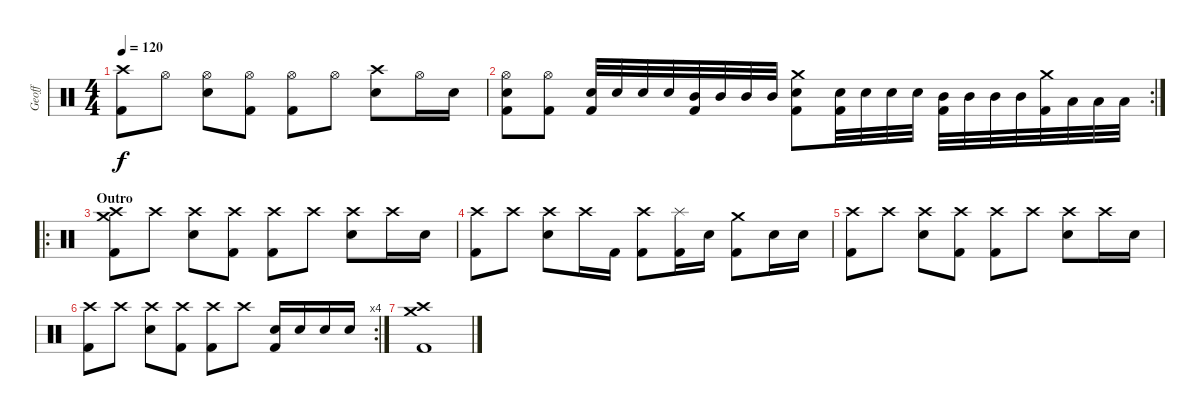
\track ("Geoff" "Geoff") {instrument percussion}
\staff {score}
\articulation defaults
\ts (4 4)
\tempo 120
\clef neutral
\ks c
("Crash high (hit)" "Kick (hit) 2").8{dy f} "Hi-Hat (open)".8 ("Hi-Hat (open)" "Electric Snare (hit)").8 ("Hi-Hat (open)" "Kick (hit) 2").8 ("Hi-Hat (open)" "Kick (hit) 2").8 "Hi-Hat (open)".8 ("Crash high (hit)" "Electric Snare (hit)").8 "Hi-Hat (open)".16 "Electric Snare (hit)".16 |
\rc 2
("Hi-Hat (open)" "Electric Snare (hit)" "Kick (hit) 2").8 ("Hi-Hat (open)" "Kick (hit) 2").8 ("Electric Snare (hit)" "Kick (hit) 2").32 "Electric Snare (hit)".32 "Electric Snare (hit)".32 "Electric Snare (hit)".32 ("Mid Tom (hit)" "Kick (hit) 2").32 "Mid Tom (hit)".32 "Mid Tom (hit)".32 "Mid Tom (hit)".32 ("Crash medium (hit)" "Electric Snare (hit)" "Kick (hit) 2").8 ("Electric Snare (hit)" "Kick (hit) 2").32 "Electric Snare (hit)".32 "Electric Snare (hit)".32 "Electric Snare (hit)".32 ("Mid Tom (hit)" "Kick (hit) 2").32 "Mid Tom (hit)".32 "Mid Tom (hit)".32 "Mid Tom (hit)".32 ("Crash medium (hit)" "Kick (hit) 2").32 "Low Tom (hit)".32 "Low Tom (hit)".32 "Low Tom (hit)".32 |
\ro
\section ("" "Outro")
("Crash high (hit)" "Crash medium (hit)" "Kick (hit) 2").8 "Crash high (hit)".8 ("Crash high (hit)" "Electric Snare (hit)").8 ("Crash high (hit)" "Kick (hit) 2").8 ("Crash high (hit)" "Kick (hit) 2").8 "Crash high (hit)".8 ("Crash high (hit)" "Electric Snare (hit)").8 "Crash high (hit)".16 "Electric Snare (hit)".16 |
("Crash high (hit)" "Kick (hit) 2").8 "Crash high (hit)".8 ("Crash high (hit)" "Electric Snare (hit)").8 "Crash high (hit)".16 "Kick (hit) 2".16 ("Crash high (hit)" "Kick (hit) 2").8 ("Splash (hit)" "Kick (hit) 2").16 "Electric Snare (hit)".16 ("Crash medium (hit)" "Kick (hit) 2").8 "Electric Snare (hit)".16 "Electric Snare (hit)".16 |
("Crash high (hit)" "Kick (hit) 2").8 "Crash high (hit)".8 ("Crash high (hit)" "Electric Snare (hit)").8 ("Crash high (hit)" "Kick (hit) 2").8 ("Crash high (hit)" "Kick (hit) 2").8 "Crash high (hit)".8 ("Crash high (hit)" "Electric Snare (hit)").8 "Crash high (hit)".16 "Electric Snare (hit)".16 |
\rc 4
("Crash high (hit)" "Kick (hit) 2").8 "Crash high (hit)".8 ("Crash high (hit)" "Electric Snare (hit)").8 ("Crash high (hit)" "Kick (hit) 2").8 ("Crash high (hit)" "Kick (hit) 2").8 "Crash high (hit)".8 ("Electric Snare (hit)" "Kick (hit) 2").16 "Electric Snare (hit)".16 "Electric Snare (hit)".16 "Electric Snare (hit)".16 |
("Crash high (hit)" "Crash medium (hit)" "Kick (hit) 2").1
